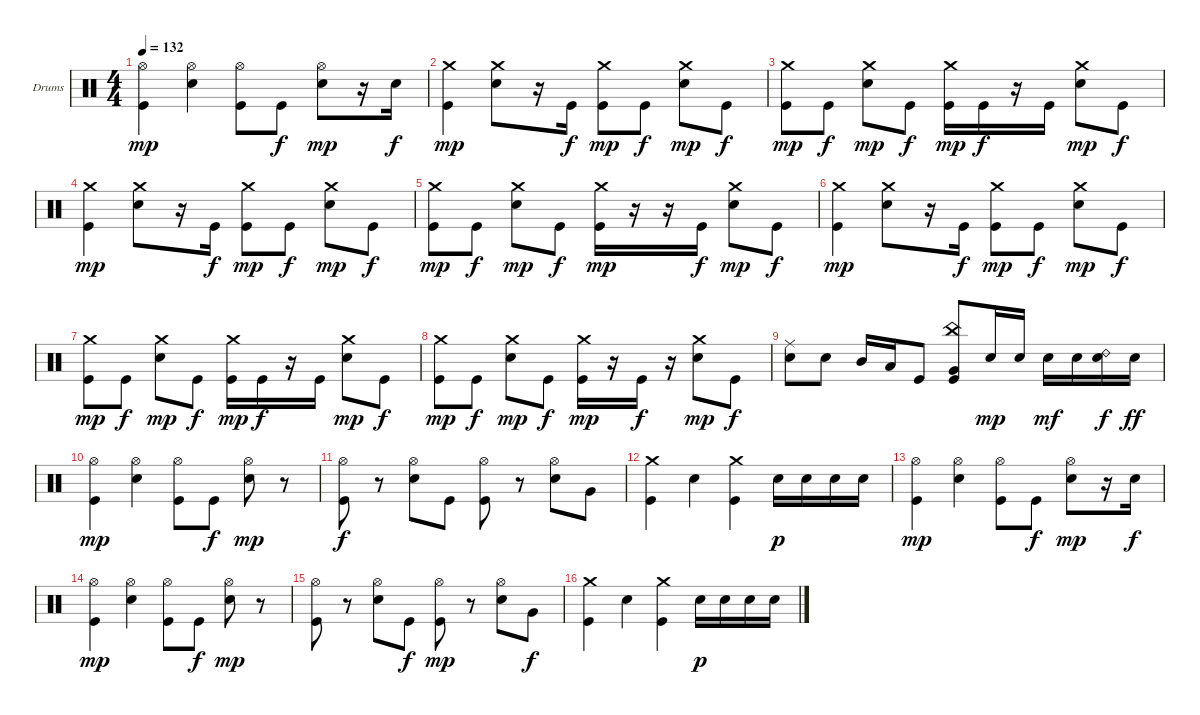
\bracketExtendMode groupsimilarinstruments
\firstSystemTrackNameOrientation horizontal
\otherSystemsTrackNameOrientation horizontal
\track ("Drumkit" "Drums") {instrument percussion}
\staff {score}
\articulation defaults
\ts (4 4)
\tempo 132
\clef neutral
\ks c
("Hi-Hat (open)" "Kick (hit)").4{dy mp} ("Hi-Hat (open)" "Snare (hit) 2").4 ("Hi-Hat (open)" "Kick (hit)").8 "Kick (hit)".8{dy f} ("Hi-Hat (open)" "Snare (hit) 2").8{dy mp} r.16 "Snare (hit) 2".16{dy f} |
("Crash medium (hit)" "Kick (hit)").4{dy mp} ("Crash medium (hit)" "Snare (hit) 2").8 r.16 "Kick (hit)".16{dy f} ("Crash medium (hit)" "Kick (hit)").8{dy mp} "Kick (hit)".8{dy f} ("Crash medium (hit)" "Snare (hit) 2").8{dy mp} "Kick (hit)".8{dy f} |
("Crash medium (hit)" "Kick (hit)").8{dy mp} "Kick (hit)".8{dy f} ("Crash medium (hit)" "Snare (hit) 2").8{dy mp} "Kick (hit)".8{dy f} ("Crash medium (hit)" "Kick (hit)").16{dy mp} "Kick (hit)".16{dy f} r.16 "Kick (hit)".16 ("Crash medium (hit)" "Snare (hit) 2").8{dy mp} "Kick (hit)".8{dy f} |
("Crash medium (hit)" "Kick (hit)").4{dy mp} ("Crash medium (hit)" "Snare (hit) 2").8 r.16 "Kick (hit)".16{dy f} ("Crash medium (hit)" "Kick (hit)").8{dy mp} "Kick (hit)".8{dy f} ("Crash medium (hit)" "Snare (hit) 2").8{dy mp} "Kick (hit)".8{dy f} |
("Crash medium (hit)" "Kick (hit)").8{dy mp} "Kick (hit)".8{dy f} ("Crash medium (hit)" "Snare (hit) 2").8{dy mp} "Kick (hit)".8{dy f} ("Crash medium (hit)" "Kick (hit)").16{dy mp} r.16 r.16 "Kick (hit)".16{dy f} ("Crash medium (hit)" "Snare (hit) 2").8{dy mp} "Kick (hit)".8{dy f} |
("Crash medium (hit)" "Kick (hit)").4{dy mp} ("Crash medium (hit)" "Snare (hit) 2").8 r.16 "Kick (hit)".16{dy f} ("Crash medium (hit)" "Kick (hit)").8{dy mp} "Kick (hit)".8{dy f} ("Crash medium (hit)" "Snare (hit) 2").8{dy mp} "Kick (hit)".8{dy f} |
("Crash medium (hit)" "Kick (hit)").8{dy mp} "Kick (hit)".8{dy f} ("Crash medium (hit)" "Snare (hit) 2").8{dy mp} "Kick (hit)".8{dy f} ("Crash medium (hit)" "Kick (hit)").16{dy mp} "Kick (hit)".16{dy f} r.16 "Kick (hit)".16 ("Crash medium (hit)" "Snare (hit) 2").8{dy mp} "Kick (hit)".8{dy f} |
("Crash medium (hit)" "Kick (hit)").8{dy mp} "Kick (hit)".8{dy f} ("Crash medium (hit)" "Snare (hit) 2").8{dy mp} "Kick (hit)".8{dy f} ("Crash medium (hit)" "Kick (hit)").16{dy mp} r.16 "Kick (hit)".16{dy f} r.16 ("Crash medium (hit)" "Snare (hit) 2").8{dy mp} "Kick (hit)".8{dy f} |
("Ride (middle)" "Snare (hit) 2").8 "Snare (hit) 2".8 "Mid Tom (hit)".16 "Low Tom (hit)".16 "Kick (hit)".8 ("China (hit)" "Very Low Tom (hit)" "Kick (hit)").8 "Snare (hit) 2".16{dy mp} "Snare (hit) 2".16 "Snare (hit) 2".16{dy mf} "Snare (hit) 2".16 ("Ride (bell) 2" "Snare (hit) 2").16{dy f} "Snare (hit) 2".16{dy ff} |
("Hi-Hat (open)" "Kick (hit)").4{dy mp} ("Hi-Hat (open)" "Snare (hit) 2").4 ("Hi-Hat (open)" "Kick (hit)").8 "Kick (hit)".8{dy f} ("Hi-Hat (open)" "Snare (hit) 2").8{dy mp} r.8 |
("Hi-Hat (open)" "Kick (hit)").8{dy f} r.8 ("Hi-Hat (open)" "Snare (hit) 2").8 "Kick (hit)".8 ("Hi-Hat (open)" "Kick (hit)").8 r.8 ("Hi-Hat (open)" "Snare (hit) 2").8 "Very Low Tom (hit)".8 |
("Crash medium (hit)" "Kick (hit)").4 "Snare (hit) 2".4 ("Crash medium (hit)" "Kick (hit)").4 "Snare (hit) 2".16{dy p} "Snare (hit) 2".16 "Snare (hit) 2".16 "Snare (hit) 2".16 |
("Hi-Hat (open)" "Kick (hit)").4{dy mp} ("Hi-Hat (open)" "Snare (hit) 2").4 ("Hi-Hat (open)" "Kick (hit)").8 "Kick (hit)".8{dy f} ("Hi-Hat (open)" "Snare (hit) 2").8{dy mp} r.16 "Snare (hit) 2".16{dy f} |
("Hi-Hat (open)" "Kick (hit)").4{dy mp} ("Hi-Hat (open)" "Snare (hit) 2").4 ("Hi-Hat (open)" "Kick (hit)").8 "Kick (hit)".8{dy f} ("Hi-Hat (open)" "Snare (hit) 2").8{dy mp} r.8 |
("Hi-Hat (open)" "Kick (hit)").8 r.8 ("Hi-Hat (open)" "Snare (hit) 2").8 "Kick (hit)".8{dy f} ("Hi-Hat (open)" "Kick (hit)").8{dy mp} r.8 ("Hi-Hat (open)" "Snare (hit) 2").8 "Very Low Tom (hit)".8{dy f} |
("Crash medium (hit)" "Kick (hit)").4 "Snare (hit) 2".4 ("Crash medium (hit)" "Kick (hit)").4 "Snare (hit) 2".16{dy p} "Snare (hit) 2".16 "Snare (hit) 2".16 "Snare (hit) 2".16
